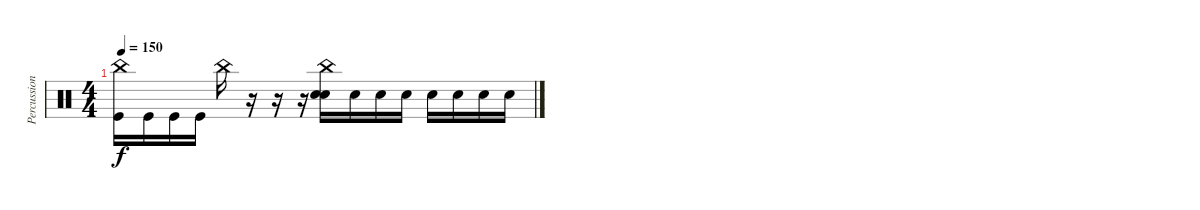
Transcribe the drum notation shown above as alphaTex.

\track ("Percussion" "Percussion") {instrument percussion}
\staff {score}
\articulation defaults
\ts (4 4)
\tempo 150
\clef neutral
\ks c
("China (hit)" "Kick (hit)").16{dy f} "Kick (hit)".16 "Kick (hit)".16 "Kick (hit)".16 "China (hit)".16 r.16 r.16 r.16 ("China (hit)" "Electric Snare (hit)" "Electric Snare (hit)").16 "Electric Snare (hit)".16 "Electric Snare (hit)".16 "Electric Snare (hit)".16 "Electric Snare (hit)".16 "Electric Snare (hit)".16 "Electric Snare (hit)".16 "Electric Snare (hit)".16
